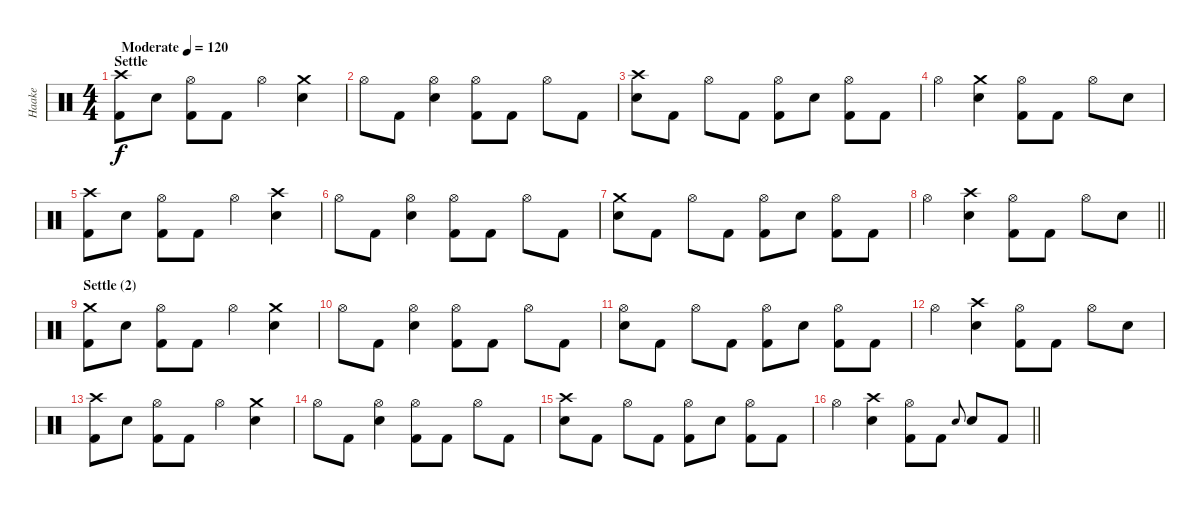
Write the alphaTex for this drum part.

\track ("Haake" "Haake") {instrument percussion}
\staff {score}
\articulation defaults
\ts (4 4)
\section ("" "Settle")
\tempo (120 "Moderate")
\clef neutral
\ks c
("Crash high (hit)" "Kick (hit) 2").8{dy f} "Electric Snare (hit)".8 ("Hi-Hat (open)" "Kick (hit) 2").8 "Kick (hit) 2".8 "Hi-Hat (open)".4 ("Crash medium (hit)" "Electric Snare (hit)").4 |
"Hi-Hat (open)".8 "Kick (hit) 2".8 ("Hi-Hat (open)" "Electric Snare (hit)").4 ("Hi-Hat (open)" "Kick (hit) 2").8 "Kick (hit) 2".8 "Hi-Hat (open)".8 "Kick (hit) 2".8 |
("Crash high (hit)" "Electric Snare (hit)").8 "Kick (hit) 2".8 "Hi-Hat (open)".8 "Kick (hit) 2".8 ("Hi-Hat (open)" "Kick (hit) 2").8 "Electric Snare (hit)".8 ("Hi-Hat (open)" "Kick (hit) 2").8 "Kick (hit) 2".8 |
"Hi-Hat (open)".4 ("Crash medium (hit)" "Electric Snare (hit)").4 ("Hi-Hat (open)" "Kick (hit) 2").8 "Kick (hit) 2".8 "Hi-Hat (open)".8 "Electric Snare (hit)".8 |
("Crash high (hit)" "Kick (hit) 2").8 "Electric Snare (hit)".8 ("Hi-Hat (open)" "Kick (hit) 2").8 "Kick (hit) 2".8 "Hi-Hat (open)".4 ("Crash high (hit)" "Electric Snare (hit)").4 |
"Hi-Hat (open)".8 "Kick (hit) 2".8 ("Hi-Hat (open)" "Electric Snare (hit)").4 ("Hi-Hat (open)" "Kick (hit) 2").8 "Kick (hit) 2".8 "Hi-Hat (open)".8 "Kick (hit) 2".8 |
("Crash medium (hit)" "Electric Snare (hit)").8 "Kick (hit) 2".8 "Hi-Hat (open)".8 "Kick (hit) 2".8 ("Hi-Hat (open)" "Kick (hit) 2").8 "Electric Snare (hit)".8 ("Hi-Hat (open)" "Kick (hit) 2").8 "Kick (hit) 2".8 |
\barLineRight lightlight "Hi-Hat (open)".4
("Crash high (hit)" "Electric Snare (hit)").4 ("Hi-Hat (open)" "Kick (hit) 2").8 "Kick (hit) 2".8 "Hi-Hat (open)".8 "Electric Snare (hit)".8 |
\section ("" "Settle (2)")
("Crash medium (hit)" "Kick (hit) 2").8 "Electric Snare (hit)".8 ("Hi-Hat (open)" "Kick (hit) 2").8 "Kick (hit) 2".8 "Hi-Hat (open)".4 ("Crash medium (hit)" "Electric Snare (hit)").4 |
"Hi-Hat (open)".8 "Kick (hit) 2".8 ("Hi-Hat (open)" "Electric Snare (hit)").4 ("Hi-Hat (open)" "Kick (hit) 2").8 "Kick (hit) 2".8 "Hi-Hat (open)".8 "Kick (hit) 2".8 |
("Hi-Hat (open)" "Electric Snare (hit)").8 "Kick (hit) 2".8 "Hi-Hat (open)".8 "Kick (hit) 2".8 ("Hi-Hat (open)" "Kick (hit) 2").8 "Electric Snare (hit)".8 ("Hi-Hat (open)" "Kick (hit) 2").8 "Kick (hit) 2".8 |
"Hi-Hat (open)".4 ("Crash high (hit)" "Electric Snare (hit)").4 ("Hi-Hat (open)" "Kick (hit) 2").8 "Kick (hit) 2".8 "Hi-Hat (open)".8 "Electric Snare (hit)".8 |
("Crash high (hit)" "Kick (hit) 2").8 "Electric Snare (hit)".8 ("Hi-Hat (open)" "Kick (hit) 2").8 "Kick (hit) 2".8 "Hi-Hat (open)".4 ("Crash medium (hit)" "Electric Snare (hit)").4 |
"Hi-Hat (open)".8 "Kick (hit) 2".8 ("Hi-Hat (open)" "Electric Snare (hit)").4 ("Hi-Hat (open)" "Kick (hit) 2").8 "Kick (hit) 2".8 "Hi-Hat (open)".8 "Kick (hit) 2".8 |
("Crash high (hit)" "Electric Snare (hit)").8 "Kick (hit) 2".8 "Hi-Hat (open)".8 "Kick (hit) 2".8 ("Hi-Hat (open)" "Kick (hit) 2").8 "Electric Snare (hit)".8 ("Hi-Hat (open)" "Kick (hit) 2").8 "Kick (hit) 2".8 |
\barLineRight lightlight "Hi-Hat (open)".4
("Crash high (hit)" "Electric Snare (hit)").4 ("Hi-Hat (open)" "Kick (hit) 2").8 "Kick (hit) 2".8 "Electric Snare (hit)".8{gr onbeat} "Electric Snare (hit)".8 "Kick (hit) 2".8
